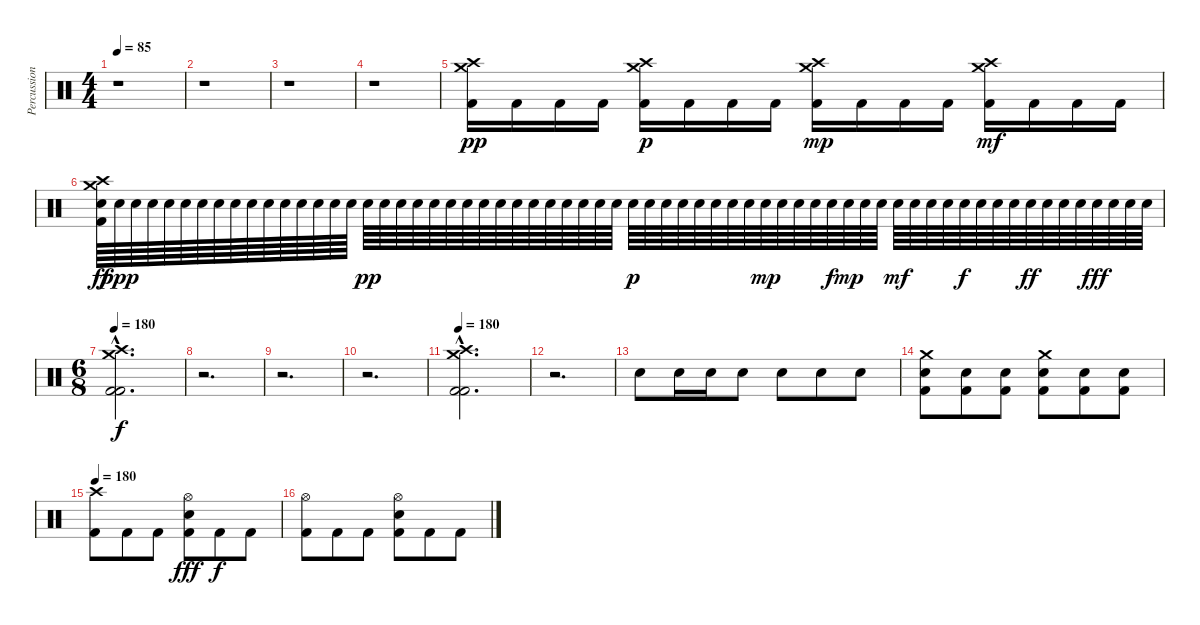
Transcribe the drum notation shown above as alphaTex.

\track ("Percussion" "Percussion") {instrument percussion}
\staff {score}
\articulation defaults
\ts (4 4)
\tempo 85
\clef neutral
\ks c
r.1{dy f} |
r.1 |
r.1 |
r.1 |
("Crash high (hit)" "Crash medium (hit)" "Kick (hit) 2").16{dy pp} "Kick (hit) 2".16 "Kick (hit) 2".16 "Kick (hit) 2".16 ("Crash high (hit)" "Crash medium (hit)" "Kick (hit) 2").16{dy p} "Kick (hit) 2".16 "Kick (hit) 2".16 "Kick (hit) 2".16 ("Crash high (hit)" "Crash medium (hit)" "Kick (hit) 2").16{dy mp} "Kick (hit) 2".16 "Kick (hit) 2".16 "Kick (hit) 2".16 ("Crash high (hit)" "Crash medium (hit)" "Kick (hit) 2").16{dy mf} "Kick (hit) 2".16 "Kick (hit) 2".16 "Kick (hit) 2".16 |
("Crash high (hit)" "Crash medium (hit)" "Snare (hit) 2" "Kick (hit) 2").64{dy ff} "Snare (hit) 2".64{dy ppp} "Snare (hit) 2".64 "Snare (hit) 2".64 "Snare (hit) 2".64 "Snare (hit) 2".64 "Snare (hit) 2".64 "Snare (hit) 2".64 "Snare (hit) 2".64 "Snare (hit) 2".64 "Snare (hit) 2".64 "Snare (hit) 2".64 "Snare (hit) 2".64 "Snare (hit) 2".64 "Snare (hit) 2".64 "Snare (hit) 2".64 "Snare (hit) 2".64{dy pp} "Snare (hit) 2".64 "Snare (hit) 2".64 "Snare (hit) 2".64 "Snare (hit) 2".64 "Snare (hit) 2".64 "Snare (hit) 2".64 "Snare (hit) 2".64 "Snare (hit) 2".64 "Snare (hit) 2".64 "Snare (hit) 2".64 "Snare (hit) 2".64 "Snare (hit) 2".64 "Snare (hit) 2".64 "Snare (hit) 2".64 "Snare (hit) 2".64 "Snare (hit) 2".64{dy p} "Snare (hit) 2".64 "Snare (hit) 2".64 "Snare (hit) 2".64 "Snare (hit) 2".64 "Snare (hit) 2".64 "Snare (hit) 2".64 "Snare (hit) 2".64 "Snare (hit) 2".64{dy mp} "Snare (hit) 2".64 "Snare (hit) 2".64 "Snare (hit) 2".64 "Snare (hit) 2".64{dy f} "Snare (hit) 2".64{dy mp} "Snare (hit) 2".64 "Snare (hit) 2".64 "Snare (hit) 2".64{dy mf} "Snare (hit) 2".64 "Snare (hit) 2".64 "Snare (hit) 2".64 "Snare (hit) 2".64{dy f} "Snare (hit) 2".64 "Snare (hit) 2".64 "Snare (hit) 2".64 "Snare (hit) 2".64{dy ff} "Snare (hit) 2".64 "Snare (hit) 2".64 "Snare (hit) 2".64 "Snare (hit) 2".64{dy fff} "Snare (hit) 2".64 "Snare (hit) 2".64 "Snare (hit) 2".64 |
\ts (6 8)
\tempo 180
("Crash high (hit)"{hac} "Crash medium (hit)"{hac} "Kick (hit) 2"{hac} "Kick (hit) 2"{hac}).2{d dy f} |
r.2{d} |
r.2{d} |
r.2{d} |
\tempo 180
("Crash high (hit)"{hac} "Crash medium (hit)"{hac} "Kick (hit) 2"{hac} "Kick (hit) 2"{hac}).2{d} |
r.2{d} |
"Snare (hit) 2".8 "Snare (hit) 2".16 "Snare (hit) 2".16 "Snare (hit) 2".8 "Snare (hit) 2".8 "Snare (hit) 2".8 "Snare (hit) 2".8 |
("Crash medium (hit)" "Snare (hit) 2" "Kick (hit) 2").8 ("Snare (hit) 2" "Kick (hit) 2").8 ("Snare (hit) 2" "Kick (hit) 2").8 ("Crash medium (hit)" "Snare (hit) 2" "Kick (hit) 2").8 ("Snare (hit) 2" "Kick (hit) 2").8 ("Snare (hit) 2" "Kick (hit) 2").8 |
\tempo 180
("Crash high (hit)" "Kick (hit) 2").8 "Kick (hit) 2".8 "Kick (hit) 2".8 ("Hi-Hat (open)" "Snare (hit) 2" "Kick (hit) 2").8{dy fff} "Kick (hit) 2".8{dy f} "Kick (hit) 2".8 |
("Hi-Hat (open)" "Kick (hit) 2").8 "Kick (hit) 2".8 "Kick (hit) 2".8 ("Hi-Hat (open)" "Snare (hit) 2" "Kick (hit) 2").8 "Kick (hit) 2".8 "Kick (hit) 2".8
